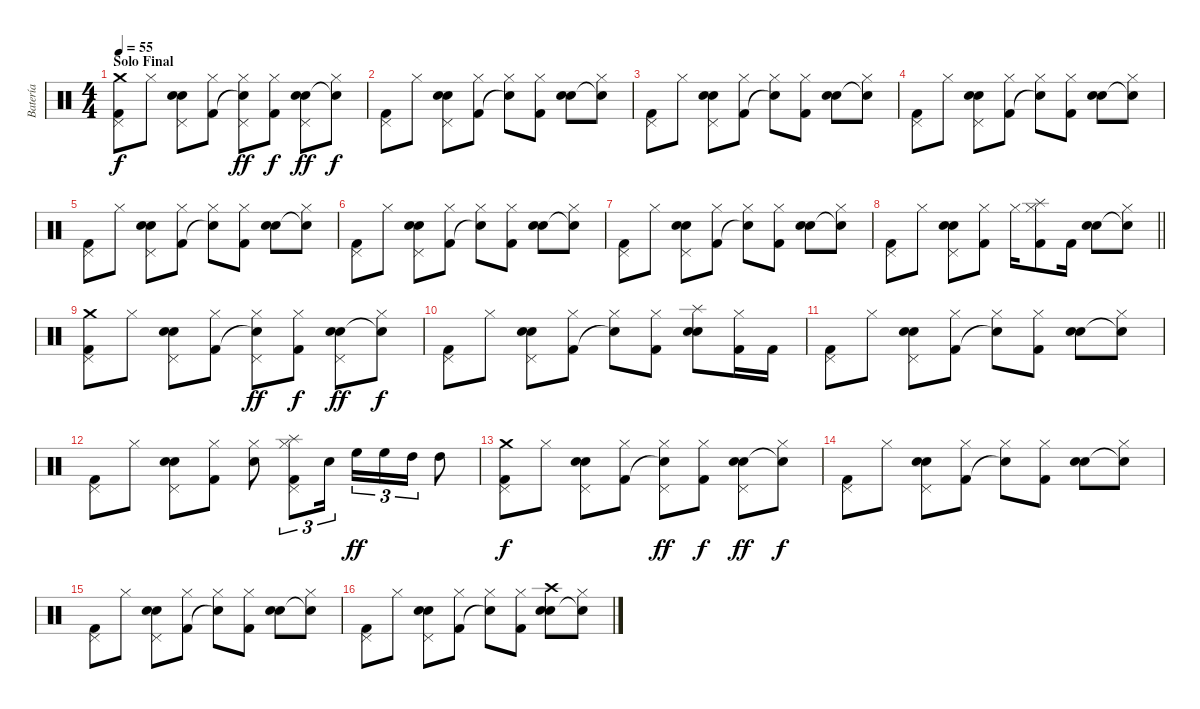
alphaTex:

\track ("Batería" "Batería") {instrument percussion}
\staff {score}
\articulation defaults
\ts (4 4)
\section ("" "Solo Final")
\tempo 55
\clef neutral
\ks c
("Crash medium (hit)" "Kick (hit) 2" "Pedal Hi-Hat (hit)").8{dy f} "Hi-Hat (closed)".8 ("Electric Snare (hit)" "Snare (hit) 2" "Pedal Hi-Hat (hit)").8 ("Kick (hit) 2" "Hi-Hat (closed)").8 ("Snare (hit)"{t} "Hi-Hat (closed)" "Pedal Hi-Hat (hit)").8{dy ff} ("Kick (hit) 2" "Hi-Hat (closed)").8{dy f} ("Electric Snare (hit)" "Snare (hit) 2" "Pedal Hi-Hat (hit)").8{dy ff} ("Snare (hit)"{t} "Hi-Hat (closed)").8{dy f} |
("Kick (hit) 2" "Pedal Hi-Hat (hit)").8 "Hi-Hat (closed)".8 ("Electric Snare (hit)" "Snare (hit) 2" "Pedal Hi-Hat (hit)").8 ("Kick (hit) 2" "Hi-Hat (closed)").8 ("Snare (hit)"{t} "Hi-Hat (closed)").8 ("Kick (hit) 2" "Hi-Hat (closed)").8 ("Electric Snare (hit)" "Snare (hit) 2").8 ("Snare (hit)"{t} "Hi-Hat (closed)").8 |
("Kick (hit) 2" "Pedal Hi-Hat (hit)").8 "Hi-Hat (closed)".8 ("Electric Snare (hit)" "Snare (hit) 2" "Pedal Hi-Hat (hit)").8 ("Kick (hit) 2" "Hi-Hat (closed)").8 ("Snare (hit)"{t} "Hi-Hat (closed)").8 ("Kick (hit) 2" "Hi-Hat (closed)").8 ("Electric Snare (hit)" "Snare (hit) 2").8 ("Snare (hit)"{t} "Hi-Hat (closed)").8 |
("Kick (hit) 2" "Pedal Hi-Hat (hit)").8 "Hi-Hat (closed)".8 ("Electric Snare (hit)" "Snare (hit) 2" "Pedal Hi-Hat (hit)").8 ("Kick (hit) 2" "Hi-Hat (closed)").8 ("Snare (hit)"{t} "Hi-Hat (closed)").8 ("Kick (hit) 2" "Hi-Hat (closed)").8 ("Electric Snare (hit)" "Snare (hit) 2").8 ("Snare (hit)"{t} "Hi-Hat (closed)").8 |
("Kick (hit) 2" "Pedal Hi-Hat (hit)").8 "Hi-Hat (closed)".8 ("Electric Snare (hit)" "Snare (hit) 2" "Pedal Hi-Hat (hit)").8 ("Kick (hit) 2" "Hi-Hat (closed)").8 ("Snare (hit)"{t} "Hi-Hat (closed)").8 ("Kick (hit) 2" "Hi-Hat (closed)").8 ("Electric Snare (hit)" "Snare (hit) 2").8 ("Snare (hit)"{t} "Hi-Hat (closed)").8 |
("Kick (hit) 2" "Pedal Hi-Hat (hit)").8 "Hi-Hat (closed)".8 ("Electric Snare (hit)" "Snare (hit) 2" "Pedal Hi-Hat (hit)").8 ("Kick (hit) 2" "Hi-Hat (closed)").8 ("Snare (hit)"{t} "Hi-Hat (closed)").8 ("Kick (hit) 2" "Hi-Hat (closed)").8 ("Electric Snare (hit)" "Snare (hit) 2").8 ("Snare (hit)"{t} "Hi-Hat (closed)").8 |
("Kick (hit) 2" "Pedal Hi-Hat (hit)").8 "Hi-Hat (closed)".8 ("Electric Snare (hit)" "Snare (hit) 2" "Pedal Hi-Hat (hit)").8 ("Kick (hit) 2" "Hi-Hat (closed)").8 ("Snare (hit)"{t} "Hi-Hat (closed)").8 ("Kick (hit) 2" "Hi-Hat (closed)").8 ("Electric Snare (hit)" "Snare (hit) 2").8 ("Snare (hit)"{t} "Hi-Hat (closed)").8 |
\barLineRight lightlight
("Kick (hit) 2" "Pedal Hi-Hat (hit)").8 "Hi-Hat (closed)".8 ("Electric Snare (hit)" "Snare (hit) 2" "Pedal Hi-Hat (hit)").8 ("Kick (hit) 2" "Hi-Hat (closed)").8 "Hi-Hat (closed)".16 ("Kick (hit) 2" "Hi-Hat (closed)" "Splash (hit)").8 "Kick (hit) 2".16 ("Electric Snare (hit)" "Snare (hit) 2").8 ("Snare (hit)"{t} "Hi-Hat (closed)").8 |
("Crash medium (hit)" "Kick (hit) 2" "Pedal Hi-Hat (hit)").8 "Hi-Hat (closed)".8 ("Electric Snare (hit)" "Snare (hit) 2" "Pedal Hi-Hat (hit)").8 ("Kick (hit) 2" "Hi-Hat (closed)").8 ("Snare (hit)"{t} "Hi-Hat (closed)" "Pedal Hi-Hat (hit)").8{dy ff} ("Kick (hit) 2" "Hi-Hat (closed)").8{dy f} ("Electric Snare (hit)" "Snare (hit) 2" "Pedal Hi-Hat (hit)").8{dy ff} ("Snare (hit)"{t} "Hi-Hat (closed)").8{dy f} |
("Kick (hit) 2" "Pedal Hi-Hat (hit)").8 "Hi-Hat (closed)".8 ("Electric Snare (hit)" "Snare (hit) 2" "Pedal Hi-Hat (hit)").8 ("Kick (hit) 2" "Hi-Hat (closed)").8 ("Snare (hit)"{t} "Hi-Hat (closed)").8 ("Kick (hit) 2" "Hi-Hat (closed)").8 ("Electric Snare (hit)" "Snare (hit) 2" "Splash (hit)").8 ("Kick (hit) 2" "Hi-Hat (closed)").16 "Kick (hit) 2".16 |
("Kick (hit) 2" "Pedal Hi-Hat (hit)").8 "Hi-Hat (closed)".8 ("Electric Snare (hit)" "Snare (hit) 2" "Pedal Hi-Hat (hit)").8 ("Kick (hit) 2" "Hi-Hat (closed)").8 ("Snare (hit)"{t} "Hi-Hat (closed)").8 ("Kick (hit) 2" "Hi-Hat (closed)").8 ("Electric Snare (hit)" "Snare (hit) 2").8 ("Snare (hit)"{t} "Hi-Hat (closed)").8 |
("Kick (hit) 2" "Pedal Hi-Hat (hit)").8 "Hi-Hat (closed)".8 ("Electric Snare (hit)" "Snare (hit) 2" "Pedal Hi-Hat (hit)").8 ("Kick (hit) 2" "Hi-Hat (closed)").8 ("Snare (hit) 2" "Hi-Hat (closed)").8 ("Kick (hit) 2" "Hi-Hat (closed)" "Pedal Hi-Hat (hit)" "Splash (hit)").8{tu (3 2)} "Electric Snare (hit)".16{tu (3 2)} "High Floor Tom (hit)".16{tu (3 2) dy ff} "High Floor Tom (hit)".16{tu (3 2)} "High Tom (hit)".16{tu (3 2)} "High Tom (hit)".8 |
("Crash medium (hit)" "Kick (hit) 2" "Pedal Hi-Hat (hit)").8{dy f} "Hi-Hat (closed)".8 ("Electric Snare (hit)" "Snare (hit) 2" "Pedal Hi-Hat (hit)").8 ("Kick (hit) 2" "Hi-Hat (closed)").8 ("Snare (hit)"{t} "Hi-Hat (closed)" "Pedal Hi-Hat (hit)").8{dy ff} ("Kick (hit) 2" "Hi-Hat (closed)").8{dy f} ("Electric Snare (hit)" "Snare (hit) 2" "Pedal Hi-Hat (hit)").8{dy ff} ("Snare (hit)"{t} "Hi-Hat (closed)").8{dy f} |
("Kick (hit) 2" "Pedal Hi-Hat (hit)").8 "Hi-Hat (closed)".8 ("Electric Snare (hit)" "Snare (hit) 2" "Pedal Hi-Hat (hit)").8 ("Kick (hit) 2" "Hi-Hat (closed)").8 ("Snare (hit)"{t} "Hi-Hat (closed)").8 ("Kick (hit) 2" "Hi-Hat (closed)").8 ("Electric Snare (hit)" "Snare (hit) 2").8 ("Snare (hit)"{t} "Hi-Hat (closed)").8 |
("Kick (hit) 2" "Pedal Hi-Hat (hit)").8 "Hi-Hat (closed)".8 ("Electric Snare (hit)" "Snare (hit) 2" "Pedal Hi-Hat (hit)").8 ("Kick (hit) 2" "Hi-Hat (closed)").8 ("Snare (hit)"{t} "Hi-Hat (closed)").8 ("Kick (hit) 2" "Hi-Hat (closed)").8 ("Electric Snare (hit)" "Snare (hit) 2").8 ("Snare (hit)"{t} "Hi-Hat (closed)").8 |
("Kick (hit) 2" "Pedal Hi-Hat (hit)").8 "Hi-Hat (closed)".8 ("Electric Snare (hit)" "Snare (hit) 2" "Pedal Hi-Hat (hit)").8 ("Kick (hit) 2" "Hi-Hat (closed)").8 ("Snare (hit)"{t} "Hi-Hat (closed)").8 ("Kick (hit) 2" "Hi-Hat (closed)").8 ("Electric Snare (hit)" "Snare (hit) 2" "Crash high (hit)").8 ("Snare (hit)"{t} "Hi-Hat (closed)").8
